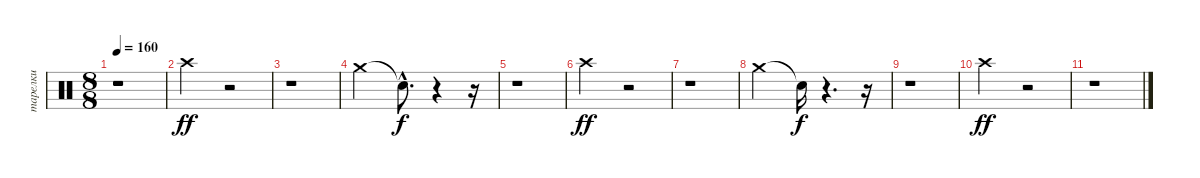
\track ("тарелки" "тарелки") {instrument percussion}
\staff {score}
\articulation defaults
\ts (8 8)
\tempo 160
\clef neutral
\ks c
r.1{dy f} |
"Crash high (hit)".2{dy ff volume 15} r.2 |
r.1 |
"Crash medium (hit)".2{volume 12} "Snare (hit)"{hac t}.8{d dy f} r.4 r.16 |
r.1 |
"Crash high (hit)".2{dy ff volume 9} r.2 |
r.1 |
"Crash medium (hit)".2{volume 6} "Snare (hit)"{t}.16{dy f} r.4{d} r.16 |
r.1 |
"Crash high (hit)".2{dy ff volume 2} r.2 |
r.1
